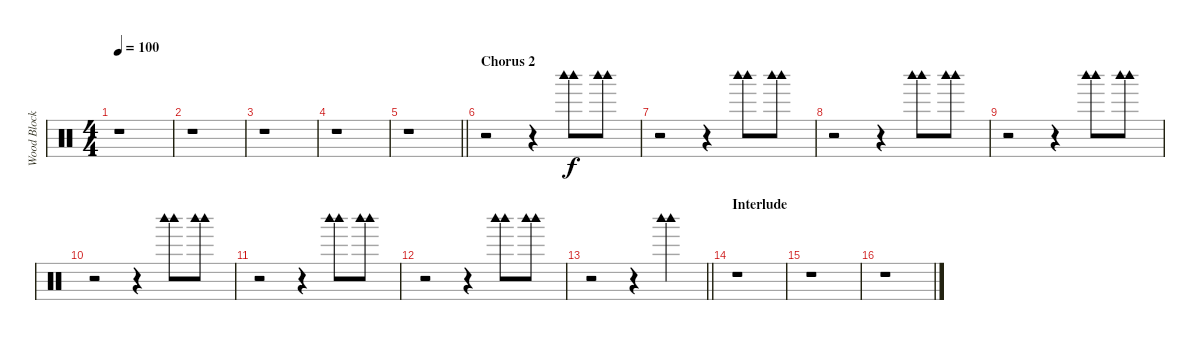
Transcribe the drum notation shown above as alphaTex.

\track ("Wood Block - Chad" "Wood Block") {instrument percussion}
\staff {score}
\articulation defaults
\ts (4 4)
\tempo 100
\clef neutral
\ks c
r.1{dy f} |
r.1 |
r.1 |
r.1 |
\barLineRight lightlight
r.1 |
\section ("" "Chorus 2")
r.2 r.4 ("Woodblock high (hit)" "Woodblock high (hit)").8 ("Woodblock high (hit)" "Woodblock high (hit)").8 |
r.2 r.4 ("Woodblock high (hit)" "Woodblock high (hit)").8 ("Woodblock high (hit)" "Woodblock high (hit)").8 |
r.2 r.4 ("Woodblock high (hit)" "Woodblock high (hit)").8 ("Woodblock high (hit)" "Woodblock high (hit)").8 |
r.2 r.4 ("Woodblock high (hit)" "Woodblock high (hit)").8 ("Woodblock high (hit)" "Woodblock high (hit)").8 |
r.2 r.4 ("Woodblock high (hit)" "Woodblock high (hit)").8 ("Woodblock high (hit)" "Woodblock high (hit)").8 |
r.2 r.4 ("Woodblock high (hit)" "Woodblock high (hit)").8 ("Woodblock high (hit)" "Woodblock high (hit)").8 |
r.2 r.4 ("Woodblock high (hit)" "Woodblock high (hit)").8 ("Woodblock high (hit)" "Woodblock high (hit)").8 |
\barLineRight lightlight
r.2 r.4 ("Woodblock high (hit)" "Woodblock high (hit)").4 |
\section ("" "Interlude")
r.1 |
r.1 |
r.1
